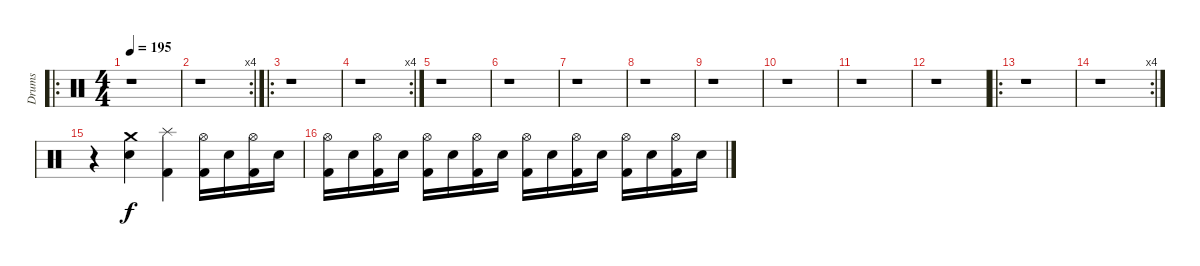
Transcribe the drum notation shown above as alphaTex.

\track ("Drums" "Drums") {instrument percussion}
\staff {score}
\articulation defaults
\ro
\ts (4 4)
\tempo 195
\clef neutral
\ks c
r.1{dy f} |
\rc 4
r.1 |
\ro
r.1 |
\rc 4
r.1 |
r.1 |
r.1 |
r.1 |
r.1 |
r.1 |
r.1 |
r.1 |
r.1 |
\ro
r.1 |
\rc 4
r.1 |
r.4 ("Crash medium (hit)" "Electric Snare (hit)").4 ("Splash (hit)" "Kick (hit) 2").4 ("Hi-Hat (open)" "Kick (hit) 2").16 "Electric Snare (hit)".16 ("Hi-Hat (open)" "Kick (hit) 2").16 "Electric Snare (hit)".16 |
("Hi-Hat (open)" "Kick (hit) 2").16 "Electric Snare (hit)".16 ("Hi-Hat (open)" "Kick (hit) 2").16 "Electric Snare (hit)".16 ("Hi-Hat (open)" "Kick (hit) 2").16 "Electric Snare (hit)".16 ("Hi-Hat (open)" "Kick (hit) 2").16 "Electric Snare (hit)".16 ("Hi-Hat (open)" "Kick (hit) 2").16 "Electric Snare (hit)".16 ("Hi-Hat (open)" "Kick (hit) 2").16 "Electric Snare (hit)".16 ("Hi-Hat (open)" "Kick (hit) 2").16 "Electric Snare (hit)".16 ("Hi-Hat (open)" "Kick (hit) 2").16 "Electric Snare (hit)".16
